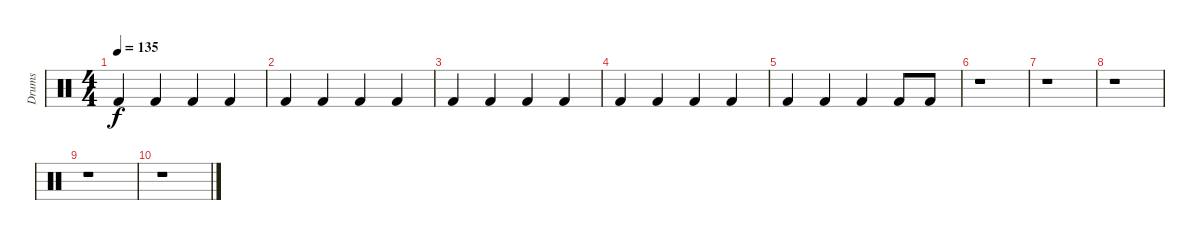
\track ("Drums" "Drums") {instrument percussion}
\staff {score}
\articulation defaults
\ts (4 4)
\tempo 135
\clef neutral
\ks c "Kick (hit) 2".4{dy f} "Kick (hit) 2".4 "Kick (hit) 2".4 "Kick (hit) 2".4
|
"Kick (hit) 2".4 "Kick (hit) 2".4 "Kick (hit) 2".4 "Kick (hit) 2".4 |
"Kick (hit) 2".4 "Kick (hit) 2".4 "Kick (hit) 2".4 "Kick (hit) 2".4 |
"Kick (hit) 2".4 "Kick (hit) 2".4 "Kick (hit) 2".4 "Kick (hit) 2".4 |
"Kick (hit) 2".4 "Kick (hit) 2".4 "Kick (hit) 2".4 "Kick (hit) 2".8 "Kick (hit) 2".8 |
r.1 |
r.1 |
r.1 |
r.1 |
r.1
